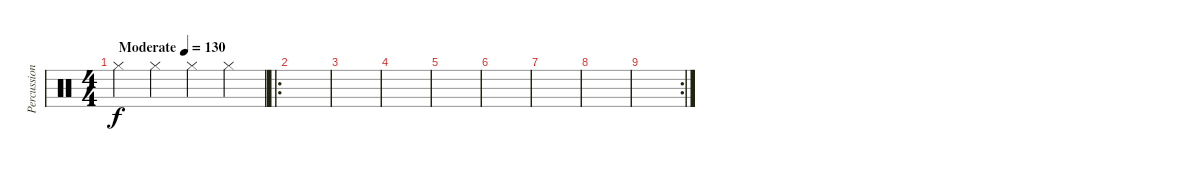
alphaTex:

\track ("Percussion" "Percussion") {instrument percussion}
\staff {score}
\articulation defaults
\ts (4 4)
\tempo (130 "Moderate")
\clef neutral
\ks c "Hi-Hat (closed)".4{dy f} "Hi-Hat (closed)".4 "Hi-Hat (closed)".4 "Hi-Hat (closed)".4
|
\ro
|
|
|
|
|
|
|
\rc 2
